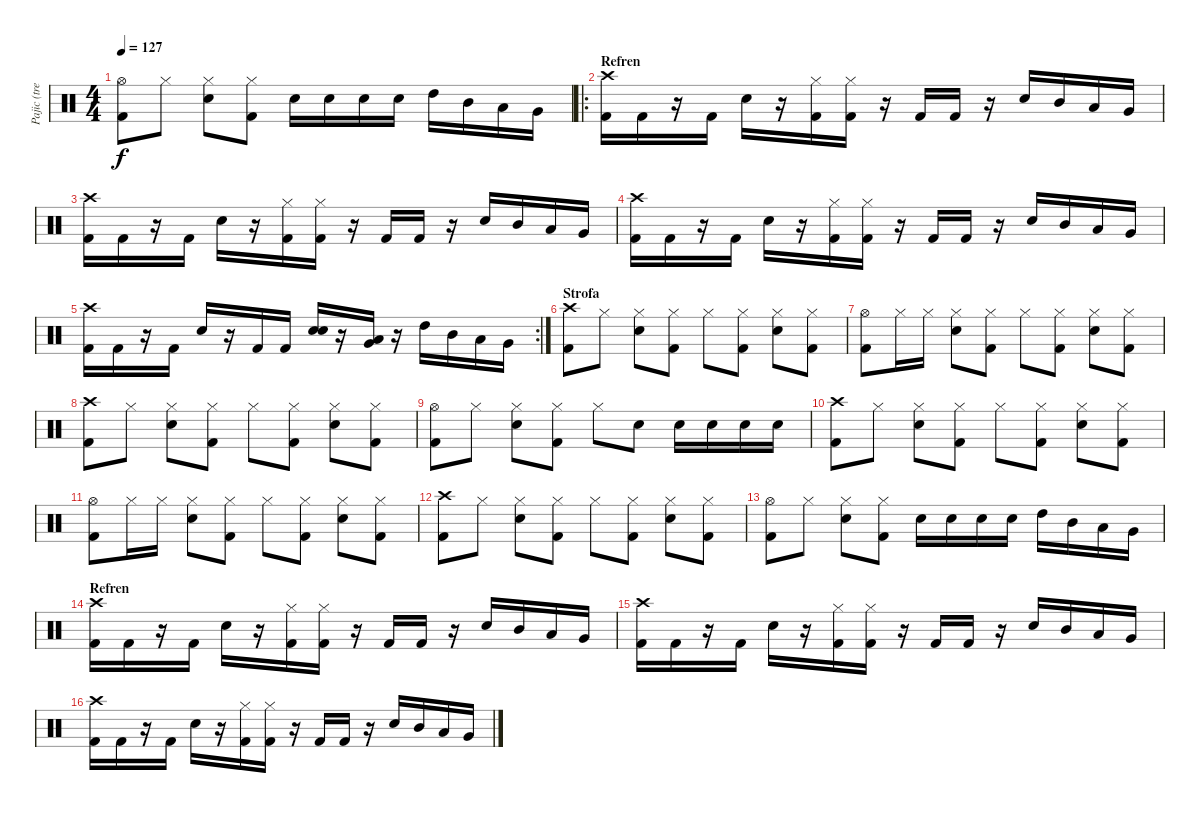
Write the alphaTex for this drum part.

\track ("Pajic (trebao)" "Pajic (tre") {instrument percussion}
\staff {score}
\articulation defaults
\ts (4 4)
\tempo 127
\clef neutral
\ks c
("Hi-Hat (open)" "Kick (hit) 2").8{dy f} "Hi-Hat (closed)".8 ("Hi-Hat (closed)" "Electric Snare (hit)").8 ("Hi-Hat (closed)" "Kick (hit) 2").8 "Electric Snare (hit)".16 "Electric Snare (hit)".16 "Electric Snare (hit)".16 "Electric Snare (hit)".16 "High Tom (hit)".16 "Mid Tom (hit)".16 "Low Tom (hit)".16 "Very Low Tom (hit)".16 |
\ro
\section ("" "Refren")
("Crash high (hit)" "Kick (hit) 2").16 "Kick (hit) 2".16 r.16 "Kick (hit) 2".16 "Electric Snare (hit)".16 r.16 ("Hi-Hat (closed)" "Kick (hit) 2").16 ("Hi-Hat (closed)" "Kick (hit) 2").16 r.16 "Kick (hit) 2".16 "Kick (hit) 2".16 r.16 "Electric Snare (hit)".16 "Mid Tom (hit)".16 "Low Tom (hit)".16 "Very Low Tom (hit)".16 |
("Crash high (hit)" "Kick (hit) 2").16 "Kick (hit) 2".16 r.16 "Kick (hit) 2".16 "Electric Snare (hit)".16 r.16 ("Hi-Hat (closed)" "Kick (hit) 2").16 ("Hi-Hat (closed)" "Kick (hit) 2").16 r.16 "Kick (hit) 2".16 "Kick (hit) 2".16 r.16 "Electric Snare (hit)".16 "Mid Tom (hit)".16 "Low Tom (hit)".16 "Very Low Tom (hit)".16 |
("Crash high (hit)" "Kick (hit) 2").16 "Kick (hit) 2".16 r.16 "Kick (hit) 2".16 "Electric Snare (hit)".16 r.16 ("Hi-Hat (closed)" "Kick (hit) 2").16 ("Hi-Hat (closed)" "Kick (hit) 2").16 r.16 "Kick (hit) 2".16 "Kick (hit) 2".16 r.16 "Electric Snare (hit)".16 "Mid Tom (hit)".16 "Low Tom (hit)".16 "Very Low Tom (hit)".16 |
\rc 2
("Crash high (hit)" "Kick (hit) 2").16 "Kick (hit) 2".16 r.16 "Kick (hit) 2".16 "Electric Snare (hit)".16 r.16 "Kick (hit) 2".16 "Kick (hit) 2".16 ("Electric Snare (hit)" "Electric Snare (hit)").16{bd 60} r.16 ("Very Low Tom (hit)" "Low Tom (hit)").16{bd 60} r.16 "High Tom (hit)".16 "Mid Tom (hit)".16 "Low Tom (hit)".16 "Very Low Tom (hit)".16 |
\section ("" "Strofa")
("Crash high (hit)" "Kick (hit) 2").8 "Hi-Hat (closed)".8 ("Hi-Hat (closed)" "Electric Snare (hit)").8 ("Hi-Hat (closed)" "Kick (hit) 2").8 "Hi-Hat (closed)".8 ("Hi-Hat (closed)" "Kick (hit) 2").8 ("Hi-Hat (closed)" "Electric Snare (hit)").8 ("Hi-Hat (closed)" "Kick (hit) 2").8 |
("Hi-Hat (open)" "Kick (hit) 2").8 "Hi-Hat (closed)".16 "Hi-Hat (closed)".16 ("Hi-Hat (closed)" "Electric Snare (hit)").8 ("Hi-Hat (closed)" "Kick (hit) 2").8 "Hi-Hat (closed)".8 ("Hi-Hat (closed)" "Kick (hit) 2").8 ("Hi-Hat (closed)" "Electric Snare (hit)").8 ("Hi-Hat (closed)" "Kick (hit) 2").8 |
("Crash high (hit)" "Kick (hit) 2").8 "Hi-Hat (closed)".8 ("Hi-Hat (closed)" "Electric Snare (hit)").8 ("Hi-Hat (closed)" "Kick (hit) 2").8 "Hi-Hat (closed)".8 ("Hi-Hat (closed)" "Kick (hit) 2").8 ("Hi-Hat (closed)" "Electric Snare (hit)").8 ("Hi-Hat (closed)" "Kick (hit) 2").8 |
("Hi-Hat (open)" "Kick (hit) 2").8 "Hi-Hat (closed)".8 ("Hi-Hat (closed)" "Electric Snare (hit)").8 ("Hi-Hat (closed)" "Kick (hit) 2").8 "Hi-Hat (closed)".8 "Electric Snare (hit)".8 "Electric Snare (hit)".16 "Electric Snare (hit)".16 "Electric Snare (hit)".16 "Electric Snare (hit)".16 |
("Crash high (hit)" "Kick (hit) 2").8 "Hi-Hat (closed)".8 ("Hi-Hat (closed)" "Electric Snare (hit)").8 ("Hi-Hat (closed)" "Kick (hit) 2").8 "Hi-Hat (closed)".8 ("Hi-Hat (closed)" "Kick (hit) 2").8 ("Hi-Hat (closed)" "Electric Snare (hit)").8 ("Hi-Hat (closed)" "Kick (hit) 2").8 |
("Hi-Hat (open)" "Kick (hit) 2").8 "Hi-Hat (closed)".16 "Hi-Hat (closed)".16 ("Hi-Hat (closed)" "Electric Snare (hit)").8 ("Hi-Hat (closed)" "Kick (hit) 2").8 "Hi-Hat (closed)".8 ("Hi-Hat (closed)" "Kick (hit) 2").8 ("Hi-Hat (closed)" "Electric Snare (hit)").8 ("Hi-Hat (closed)" "Kick (hit) 2").8 |
("Crash high (hit)" "Kick (hit) 2").8 "Hi-Hat (closed)".8 ("Hi-Hat (closed)" "Electric Snare (hit)").8 ("Hi-Hat (closed)" "Kick (hit) 2").8 "Hi-Hat (closed)".8 ("Hi-Hat (closed)" "Kick (hit) 2").8 ("Hi-Hat (closed)" "Electric Snare (hit)").8 ("Hi-Hat (closed)" "Kick (hit) 2").8 |
("Hi-Hat (open)" "Kick (hit) 2").8 "Hi-Hat (closed)".8 ("Hi-Hat (closed)" "Electric Snare (hit)").8 ("Hi-Hat (closed)" "Kick (hit) 2").8 "Electric Snare (hit)".16 "Electric Snare (hit)".16 "Electric Snare (hit)".16 "Electric Snare (hit)".16 "High Tom (hit)".16 "Mid Tom (hit)".16 "Low Tom (hit)".16 "Very Low Tom (hit)".16 |
\section ("" "Refren")
("Crash high (hit)" "Kick (hit) 2").16 "Kick (hit) 2".16 r.16 "Kick (hit) 2".16 "Electric Snare (hit)".16 r.16 ("Hi-Hat (closed)" "Kick (hit) 2").16 ("Hi-Hat (closed)" "Kick (hit) 2").16 r.16 "Kick (hit) 2".16 "Kick (hit) 2".16 r.16 "Electric Snare (hit)".16 "Mid Tom (hit)".16 "Low Tom (hit)".16 "Very Low Tom (hit)".16 |
("Crash high (hit)" "Kick (hit) 2").16 "Kick (hit) 2".16 r.16 "Kick (hit) 2".16 "Electric Snare (hit)".16 r.16 ("Hi-Hat (closed)" "Kick (hit) 2").16 ("Hi-Hat (closed)" "Kick (hit) 2").16 r.16 "Kick (hit) 2".16 "Kick (hit) 2".16 r.16 "Electric Snare (hit)".16 "Mid Tom (hit)".16 "Low Tom (hit)".16 "Very Low Tom (hit)".16 |
("Crash high (hit)" "Kick (hit) 2").16 "Kick (hit) 2".16 r.16 "Kick (hit) 2".16 "Electric Snare (hit)".16 r.16 ("Hi-Hat (closed)" "Kick (hit) 2").16 ("Hi-Hat (closed)" "Kick (hit) 2").16 r.16 "Kick (hit) 2".16 "Kick (hit) 2".16 r.16 "Electric Snare (hit)".16 "Mid Tom (hit)".16 "Low Tom (hit)".16 "Very Low Tom (hit)".16
